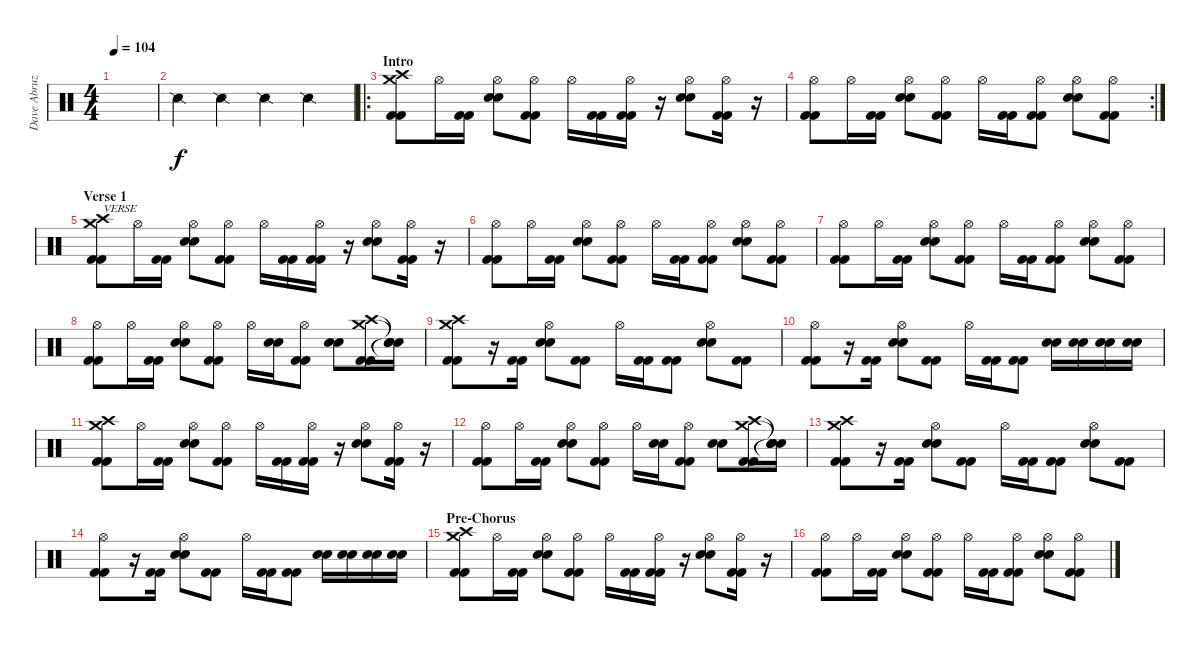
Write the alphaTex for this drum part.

\track ("Dave Abruzzese" "Dave Abruz") {instrument percussion}
\staff {score}
\articulation defaults
\ts (4 4)
\tempo 104
\clef neutral
\ks c
|
"Snare (side stick) 2".4 "Snare (side stick) 2".4 "Snare (side stick) 2".4 "Snare (side stick) 2".4 |
\ro
\section ("" "Intro")
("Crash medium (hit)" "Kick (hit) 2" "Kick (hit) 2" "Crash high (hit)").8 "Hi-Hat (open)".16 ("Kick (hit) 2" "Kick (hit) 2").16 ("Electric Snare (hit)" "Electric Snare (hit)" "Hi-Hat (open)").8 ("Kick (hit) 2" "Kick (hit) 2" "Hi-Hat (open)").8 "Hi-Hat (open)".16 ("Kick (hit) 2" "Kick (hit) 2").16 ("Kick (hit) 2" "Kick (hit) 2" "Hi-Hat (open)").16 r.16 ("Electric Snare (hit)" "Electric Snare (hit)" "Hi-Hat (open)").8 ("Kick (hit) 2" "Kick (hit) 2" "Hi-Hat (open)").16 r.16 |
\rc 2
("Kick (hit) 2" "Kick (hit) 2" "Hi-Hat (open)").8 "Hi-Hat (open)".16 ("Kick (hit) 2" "Kick (hit) 2").16 ("Electric Snare (hit)" "Electric Snare (hit)" "Hi-Hat (open)").8 ("Kick (hit) 2" "Kick (hit) 2" "Hi-Hat (open)").8 "Hi-Hat (open)".16 ("Kick (hit) 2" "Kick (hit) 2").16 ("Kick (hit) 2" "Kick (hit) 2" "Hi-Hat (open)").8 ("Electric Snare (hit)" "Electric Snare (hit)" "Hi-Hat (open)").8 ("Kick (hit) 2" "Kick (hit) 2" "Hi-Hat (open)").8 |
\section ("" "Verse 1")
("Crash medium (hit)" "Kick (hit) 2" "Kick (hit) 2" "Crash high (hit)").8{txt "VERSE"} "Hi-Hat (open)".16 ("Kick (hit) 2" "Kick (hit) 2").16 ("Electric Snare (hit)" "Electric Snare (hit)" "Hi-Hat (open)").8 ("Kick (hit) 2" "Kick (hit) 2" "Hi-Hat (open)").8 "Hi-Hat (open)".16 ("Kick (hit) 2" "Kick (hit) 2").16 ("Kick (hit) 2" "Kick (hit) 2" "Hi-Hat (open)").16 r.16 ("Electric Snare (hit)" "Electric Snare (hit)" "Hi-Hat (open)").8 ("Kick (hit) 2" "Kick (hit) 2" "Hi-Hat (open)").16 r.16 |
("Kick (hit) 2" "Kick (hit) 2" "Hi-Hat (open)").8 "Hi-Hat (open)".16 ("Kick (hit) 2" "Kick (hit) 2").16 ("Electric Snare (hit)" "Electric Snare (hit)" "Hi-Hat (open)").8 ("Kick (hit) 2" "Kick (hit) 2" "Hi-Hat (open)").8 "Hi-Hat (open)".16 ("Kick (hit) 2" "Kick (hit) 2").16 ("Kick (hit) 2" "Kick (hit) 2" "Hi-Hat (open)").8 ("Electric Snare (hit)" "Electric Snare (hit)" "Hi-Hat (open)").8 ("Kick (hit) 2" "Kick (hit) 2" "Hi-Hat (open)").8 |
("Kick (hit) 2" "Kick (hit) 2" "Hi-Hat (open)").8 "Hi-Hat (open)".16 ("Kick (hit) 2" "Kick (hit) 2").16 ("Electric Snare (hit)" "Electric Snare (hit)" "Hi-Hat (open)").8 ("Kick (hit) 2" "Kick (hit) 2" "Hi-Hat (open)").8 "Hi-Hat (open)".16 ("Kick (hit) 2" "Kick (hit) 2").16 ("Kick (hit) 2" "Kick (hit) 2" "Hi-Hat (open)").8 ("Electric Snare (hit)" "Electric Snare (hit)" "Hi-Hat (open)").8 ("Kick (hit) 2" "Kick (hit) 2" "Hi-Hat (open)").8 |
("Kick (hit) 2" "Kick (hit) 2" "Hi-Hat (open)").8 "Hi-Hat (open)".16 ("Kick (hit) 2" "Kick (hit) 2").16 ("Electric Snare (hit)" "Electric Snare (hit)" "Hi-Hat (open)").8 ("Kick (hit) 2" "Kick (hit) 2" "Hi-Hat (open)").8 "Hi-Hat (open)".16 ("Electric Snare (hit)" "Electric Snare (hit)").16 ("Kick (hit) 2" "Kick (hit) 2" "Hi-Hat (open)").8 ("Electric Snare (hit)" "Electric Snare (hit)").8 ("Crash medium (hit)" "Kick (hit) 2" "Kick (hit) 2" "Crash high (hit)").16 ("Snare (hit)"{t} "Snare (hit)"{t} "Snare (hit)"{t} "Snare (hit)"{t}).16 |
("Crash medium (hit)" "Kick (hit) 2" "Kick (hit) 2" "Crash high (hit)").8 r.16 ("Kick (hit) 2" "Kick (hit) 2").16 ("Electric Snare (hit)" "Electric Snare (hit)" "Hi-Hat (open)").8 ("Kick (hit) 2" "Kick (hit) 2").8 "Hi-Hat (open)".16 ("Kick (hit) 2" "Kick (hit) 2").16 ("Kick (hit) 2" "Kick (hit) 2").8 ("Electric Snare (hit)" "Electric Snare (hit)" "Hi-Hat (open)").8 ("Kick (hit) 2" "Kick (hit) 2").8 |
("Kick (hit) 2" "Kick (hit) 2" "Hi-Hat (open)").8 r.16 ("Kick (hit) 2" "Kick (hit) 2").16 ("Electric Snare (hit)" "Electric Snare (hit)" "Hi-Hat (open)").8 ("Kick (hit) 2" "Kick (hit) 2").8 "Hi-Hat (open)".16 ("Kick (hit) 2" "Kick (hit) 2").16 ("Kick (hit) 2" "Kick (hit) 2").8 ("Electric Snare (hit)" "Electric Snare (hit)").16 ("Electric Snare (hit)" "Electric Snare (hit)").16 ("Electric Snare (hit)" "Electric Snare (hit)").16 ("Electric Snare (hit)" "Electric Snare (hit)").16 |
("Crash medium (hit)" "Kick (hit) 2" "Kick (hit) 2" "Crash high (hit)").8 "Hi-Hat (open)".16 ("Kick (hit) 2" "Kick (hit) 2").16 ("Electric Snare (hit)" "Electric Snare (hit)" "Hi-Hat (open)").8 ("Kick (hit) 2" "Kick (hit) 2" "Hi-Hat (open)").8 "Hi-Hat (open)".16 ("Kick (hit) 2" "Kick (hit) 2").16 ("Kick (hit) 2" "Kick (hit) 2" "Hi-Hat (open)").16 r.16 ("Electric Snare (hit)" "Electric Snare (hit)" "Hi-Hat (open)").8 ("Kick (hit) 2" "Kick (hit) 2" "Hi-Hat (open)").16 r.16 |
("Kick (hit) 2" "Kick (hit) 2" "Hi-Hat (open)").8 "Hi-Hat (open)".16 ("Kick (hit) 2" "Kick (hit) 2").16 ("Electric Snare (hit)" "Electric Snare (hit)" "Hi-Hat (open)").8 ("Kick (hit) 2" "Kick (hit) 2" "Hi-Hat (open)").8 "Hi-Hat (open)".16 ("Electric Snare (hit)" "Electric Snare (hit)").16 ("Kick (hit) 2" "Kick (hit) 2" "Hi-Hat (open)").8 ("Electric Snare (hit)" "Electric Snare (hit)").8 ("Crash medium (hit)" "Kick (hit) 2" "Kick (hit) 2" "Crash high (hit)").16 ("Snare (hit)"{t} "Snare (hit)"{t} "Snare (hit)"{t} "Snare (hit)"{t}).16 |
("Crash medium (hit)" "Kick (hit) 2" "Kick (hit) 2" "Crash high (hit)").8 r.16 ("Kick (hit) 2" "Kick (hit) 2").16 ("Electric Snare (hit)" "Electric Snare (hit)" "Hi-Hat (open)").8 ("Kick (hit) 2" "Kick (hit) 2").8 "Hi-Hat (open)".16 ("Kick (hit) 2" "Kick (hit) 2").16 ("Kick (hit) 2" "Kick (hit) 2").8 ("Electric Snare (hit)" "Electric Snare (hit)" "Hi-Hat (open)").8 ("Kick (hit) 2" "Kick (hit) 2").8 |
("Kick (hit) 2" "Kick (hit) 2" "Hi-Hat (open)").8 r.16 ("Kick (hit) 2" "Kick (hit) 2").16 ("Electric Snare (hit)" "Electric Snare (hit)" "Hi-Hat (open)").8 ("Kick (hit) 2" "Kick (hit) 2").8 "Hi-Hat (open)".16 ("Kick (hit) 2" "Kick (hit) 2").16 ("Kick (hit) 2" "Kick (hit) 2").8 ("Electric Snare (hit)" "Electric Snare (hit)").16 ("Electric Snare (hit)" "Electric Snare (hit)").16 ("Electric Snare (hit)" "Electric Snare (hit)").16 ("Electric Snare (hit)" "Electric Snare (hit)").16 |
\section ("" "Pre-Chorus")
("Crash medium (hit)" "Kick (hit) 2" "Kick (hit) 2" "Crash high (hit)").8 "Hi-Hat (open)".16 ("Kick (hit) 2" "Kick (hit) 2").16 ("Electric Snare (hit)" "Electric Snare (hit)" "Hi-Hat (open)").8 ("Kick (hit) 2" "Kick (hit) 2" "Hi-Hat (open)").8 "Hi-Hat (open)".16 ("Kick (hit) 2" "Kick (hit) 2").16 ("Kick (hit) 2" "Kick (hit) 2" "Hi-Hat (open)").16 r.16 ("Electric Snare (hit)" "Electric Snare (hit)" "Hi-Hat (open)").8 ("Kick (hit) 2" "Kick (hit) 2" "Hi-Hat (open)").16 r.16 |
("Kick (hit) 2" "Kick (hit) 2" "Hi-Hat (open)").8 "Hi-Hat (open)".16 ("Kick (hit) 2" "Kick (hit) 2").16 ("Electric Snare (hit)" "Electric Snare (hit)" "Hi-Hat (open)").8 ("Kick (hit) 2" "Kick (hit) 2" "Hi-Hat (open)").8 "Hi-Hat (open)".16 ("Kick (hit) 2" "Kick (hit) 2").16 ("Kick (hit) 2" "Kick (hit) 2" "Hi-Hat (open)").8 ("Electric Snare (hit)" "Electric Snare (hit)" "Hi-Hat (open)").8 ("Kick (hit) 2" "Kick (hit) 2" "Hi-Hat (open)").8
